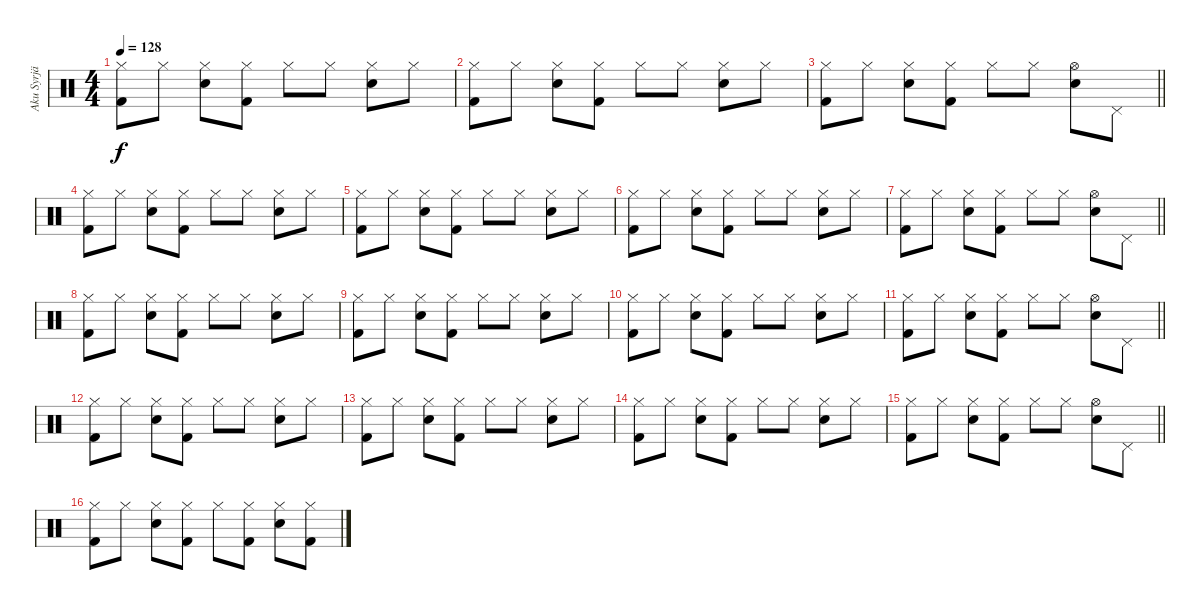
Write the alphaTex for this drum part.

\track ("Aku Syrjä" "Aku Syrjä") {instrument percussion}
\staff {score}
\articulation defaults
\ts (4 4)
\tempo 128
\clef neutral
\ks c
("Hi-Hat (closed)" "Kick (hit) 2").8{dy f} "Hi-Hat (closed)".8 ("Hi-Hat (closed)" "Electric Snare (hit)").8 ("Hi-Hat (closed)" "Kick (hit) 2").8 "Hi-Hat (closed)".8 "Hi-Hat (closed)".8 ("Hi-Hat (closed)" "Electric Snare (hit)").8 "Hi-Hat (closed)".8 |
("Hi-Hat (closed)" "Kick (hit) 2").8 "Hi-Hat (closed)".8 ("Hi-Hat (closed)" "Electric Snare (hit)").8 ("Hi-Hat (closed)" "Kick (hit) 2").8 "Hi-Hat (closed)".8 "Hi-Hat (closed)".8 ("Hi-Hat (closed)" "Electric Snare (hit)").8 "Hi-Hat (closed)".8 |
\barLineRight lightlight
("Hi-Hat (closed)" "Kick (hit) 2").8 "Hi-Hat (closed)".8 ("Hi-Hat (closed)" "Electric Snare (hit)").8 ("Hi-Hat (closed)" "Kick (hit) 2").8 "Hi-Hat (closed)".8 "Hi-Hat (closed)".8 ("Hi-Hat (open)" "Electric Snare (hit)").8 "Pedal Hi-Hat (hit)".8 |
("Hi-Hat (closed)" "Kick (hit) 2").8 "Hi-Hat (closed)".8 ("Hi-Hat (closed)" "Electric Snare (hit)").8 ("Hi-Hat (closed)" "Kick (hit) 2").8 "Hi-Hat (closed)".8 "Hi-Hat (closed)".8 ("Hi-Hat (closed)" "Electric Snare (hit)").8 "Hi-Hat (closed)".8 |
("Hi-Hat (closed)" "Kick (hit) 2").8 "Hi-Hat (closed)".8 ("Hi-Hat (closed)" "Electric Snare (hit)").8 ("Hi-Hat (closed)" "Kick (hit) 2").8 "Hi-Hat (closed)".8 "Hi-Hat (closed)".8 ("Hi-Hat (closed)" "Electric Snare (hit)").8 "Hi-Hat (closed)".8 |
("Hi-Hat (closed)" "Kick (hit) 2").8 "Hi-Hat (closed)".8 ("Hi-Hat (closed)" "Electric Snare (hit)").8 ("Hi-Hat (closed)" "Kick (hit) 2").8 "Hi-Hat (closed)".8 "Hi-Hat (closed)".8 ("Hi-Hat (closed)" "Electric Snare (hit)").8 "Hi-Hat (closed)".8 |
\barLineRight lightlight
("Hi-Hat (closed)" "Kick (hit) 2").8 "Hi-Hat (closed)".8 ("Hi-Hat (closed)" "Electric Snare (hit)").8 ("Hi-Hat (closed)" "Kick (hit) 2").8 "Hi-Hat (closed)".8 "Hi-Hat (closed)".8 ("Hi-Hat (open)" "Electric Snare (hit)").8 "Pedal Hi-Hat (hit)".8 |
("Hi-Hat (closed)" "Kick (hit) 2").8 "Hi-Hat (closed)".8 ("Hi-Hat (closed)" "Electric Snare (hit)").8 ("Hi-Hat (closed)" "Kick (hit) 2").8 "Hi-Hat (closed)".8 "Hi-Hat (closed)".8 ("Hi-Hat (closed)" "Electric Snare (hit)").8 "Hi-Hat (closed)".8 |
("Hi-Hat (closed)" "Kick (hit) 2").8 "Hi-Hat (closed)".8 ("Hi-Hat (closed)" "Electric Snare (hit)").8 ("Hi-Hat (closed)" "Kick (hit) 2").8 "Hi-Hat (closed)".8 "Hi-Hat (closed)".8 ("Hi-Hat (closed)" "Electric Snare (hit)").8 "Hi-Hat (closed)".8 |
("Hi-Hat (closed)" "Kick (hit) 2").8 "Hi-Hat (closed)".8 ("Hi-Hat (closed)" "Electric Snare (hit)").8 ("Hi-Hat (closed)" "Kick (hit) 2").8 "Hi-Hat (closed)".8 "Hi-Hat (closed)".8 ("Hi-Hat (closed)" "Electric Snare (hit)").8 "Hi-Hat (closed)".8 |
\barLineRight lightlight
("Hi-Hat (closed)" "Kick (hit) 2").8 "Hi-Hat (closed)".8 ("Hi-Hat (closed)" "Electric Snare (hit)").8 ("Hi-Hat (closed)" "Kick (hit) 2").8 "Hi-Hat (closed)".8 "Hi-Hat (closed)".8 ("Hi-Hat (open)" "Electric Snare (hit)").8 "Pedal Hi-Hat (hit)".8 |
("Hi-Hat (closed)" "Kick (hit) 2").8 "Hi-Hat (closed)".8 ("Hi-Hat (closed)" "Electric Snare (hit)").8 ("Hi-Hat (closed)" "Kick (hit) 2").8 "Hi-Hat (closed)".8 "Hi-Hat (closed)".8 ("Hi-Hat (closed)" "Electric Snare (hit)").8 "Hi-Hat (closed)".8 |
("Hi-Hat (closed)" "Kick (hit) 2").8 "Hi-Hat (closed)".8 ("Hi-Hat (closed)" "Electric Snare (hit)").8 ("Hi-Hat (closed)" "Kick (hit) 2").8 "Hi-Hat (closed)".8 "Hi-Hat (closed)".8 ("Hi-Hat (closed)" "Electric Snare (hit)").8 "Hi-Hat (closed)".8 |
("Hi-Hat (closed)" "Kick (hit) 2").8 "Hi-Hat (closed)".8 ("Hi-Hat (closed)" "Electric Snare (hit)").8 ("Hi-Hat (closed)" "Kick (hit) 2").8 "Hi-Hat (closed)".8 "Hi-Hat (closed)".8 ("Hi-Hat (closed)" "Electric Snare (hit)").8 "Hi-Hat (closed)".8 |
\barLineRight lightlight
("Hi-Hat (closed)" "Kick (hit) 2").8 "Hi-Hat (closed)".8 ("Hi-Hat (closed)" "Electric Snare (hit)").8 ("Hi-Hat (closed)" "Kick (hit) 2").8 "Hi-Hat (closed)".8 "Hi-Hat (closed)".8 ("Hi-Hat (open)" "Electric Snare (hit)").8 "Pedal Hi-Hat (hit)".8 |
("Hi-Hat (closed)" "Kick (hit) 2").8 "Hi-Hat (closed)".8 ("Hi-Hat (closed)" "Electric Snare (hit)").8 ("Hi-Hat (closed)" "Kick (hit) 2").8 "Hi-Hat (closed)".8 ("Hi-Hat (closed)" "Kick (hit) 2").8 ("Hi-Hat (closed)" "Electric Snare (hit)").8 ("Hi-Hat (closed)" "Kick (hit) 2").8
